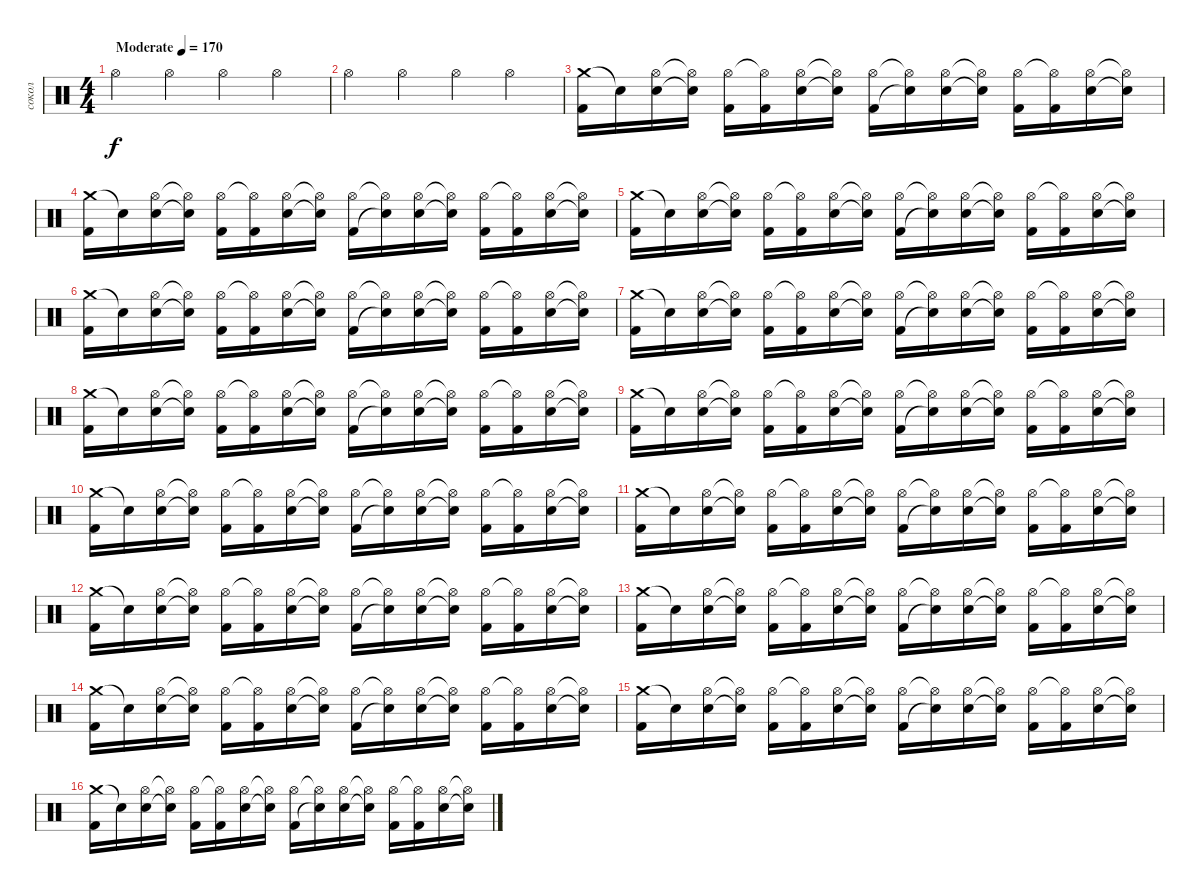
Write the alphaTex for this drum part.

\track ("сокол" "сокол") {instrument percussion}
\staff
\articulation defaults
\ts (4 4)
\tempo (170 "Moderate")
\clef neutral
\ks c "Hi-Hat (open)".4{dy f} "Hi-Hat (open)".4 "Hi-Hat (open)".4 "Hi-Hat (open)".4
|
"Hi-Hat (open)".4 "Hi-Hat (open)".4 "Hi-Hat (open)".4 "Hi-Hat (open)".4 |
("Crash medium (hit)" "Kick (hit) 2").16 "Snare (hit)"{t}.16 ("Hi-Hat (open)" "Electric Snare (hit)").16 ("Hi-Hat (open)"{t} "Snare (hit)"{t}).16 ("Hi-Hat (open)" "Kick (hit) 2").16 ("Hi-Hat (open)"{t} "Kick (hit) 2").16 ("Hi-Hat (open)" "Electric Snare (hit)").16 ("Hi-Hat (open)"{t} "Snare (hit)"{t}).16 ("Hi-Hat (open)" "Kick (hit) 2").16 ("Hi-Hat (open)"{t} "Snare (hit)"{t}).16 ("Hi-Hat (open)" "Electric Snare (hit)").16 ("Hi-Hat (open)"{t} "Snare (hit)"{t}).16 ("Hi-Hat (open)" "Kick (hit) 2").16 ("Hi-Hat (open)"{t} "Kick (hit) 2").16 ("Hi-Hat (open)" "Electric Snare (hit)").16 ("Hi-Hat (open)"{t} "Snare (hit)"{t}).16 |
("Crash medium (hit)" "Kick (hit) 2").16 "Snare (hit)"{t}.16 ("Hi-Hat (open)" "Electric Snare (hit)").16 ("Hi-Hat (open)"{t} "Snare (hit)"{t}).16 ("Hi-Hat (open)" "Kick (hit) 2").16 ("Hi-Hat (open)"{t} "Kick (hit) 2").16 ("Hi-Hat (open)" "Electric Snare (hit)").16 ("Hi-Hat (open)"{t} "Snare (hit)"{t}).16 ("Hi-Hat (open)" "Kick (hit) 2").16 ("Hi-Hat (open)"{t} "Snare (hit)"{t}).16 ("Hi-Hat (open)" "Electric Snare (hit)").16 ("Hi-Hat (open)"{t} "Snare (hit)"{t}).16 ("Hi-Hat (open)" "Kick (hit) 2").16 ("Hi-Hat (open)"{t} "Kick (hit) 2").16 ("Hi-Hat (open)" "Electric Snare (hit)").16 ("Hi-Hat (open)"{t} "Snare (hit)"{t}).16 |
("Crash medium (hit)" "Kick (hit) 2").16 "Snare (hit)"{t}.16 ("Hi-Hat (open)" "Electric Snare (hit)").16 ("Hi-Hat (open)"{t} "Snare (hit)"{t}).16 ("Hi-Hat (open)" "Kick (hit) 2").16 ("Hi-Hat (open)"{t} "Kick (hit) 2").16 ("Hi-Hat (open)" "Electric Snare (hit)").16 ("Hi-Hat (open)"{t} "Snare (hit)"{t}).16 ("Hi-Hat (open)" "Kick (hit) 2").16 ("Hi-Hat (open)"{t} "Snare (hit)"{t}).16 ("Hi-Hat (open)" "Electric Snare (hit)").16 ("Hi-Hat (open)"{t} "Snare (hit)"{t}).16 ("Hi-Hat (open)" "Kick (hit) 2").16 ("Hi-Hat (open)"{t} "Kick (hit) 2").16 ("Hi-Hat (open)" "Electric Snare (hit)").16 ("Hi-Hat (open)"{t} "Snare (hit)"{t}).16 |
("Crash medium (hit)" "Kick (hit) 2").16 "Snare (hit)"{t}.16 ("Hi-Hat (open)" "Electric Snare (hit)").16 ("Hi-Hat (open)"{t} "Snare (hit)"{t}).16 ("Hi-Hat (open)" "Kick (hit) 2").16 ("Hi-Hat (open)"{t} "Kick (hit) 2").16 ("Hi-Hat (open)" "Electric Snare (hit)").16 ("Hi-Hat (open)"{t} "Snare (hit)"{t}).16 ("Hi-Hat (open)" "Kick (hit) 2").16 ("Hi-Hat (open)"{t} "Snare (hit)"{t}).16 ("Hi-Hat (open)" "Electric Snare (hit)").16 ("Hi-Hat (open)"{t} "Snare (hit)"{t}).16 ("Hi-Hat (open)" "Kick (hit) 2").16 ("Hi-Hat (open)"{t} "Kick (hit) 2").16 ("Hi-Hat (open)" "Electric Snare (hit)").16 ("Hi-Hat (open)"{t} "Snare (hit)"{t}).16 |
("Crash medium (hit)" "Kick (hit) 2").16 "Snare (hit)"{t}.16 ("Hi-Hat (open)" "Electric Snare (hit)").16 ("Hi-Hat (open)"{t} "Snare (hit)"{t}).16 ("Hi-Hat (open)" "Kick (hit) 2").16 ("Hi-Hat (open)"{t} "Kick (hit) 2").16 ("Hi-Hat (open)" "Electric Snare (hit)").16 ("Hi-Hat (open)"{t} "Snare (hit)"{t}).16 ("Hi-Hat (open)" "Kick (hit) 2").16 ("Hi-Hat (open)"{t} "Snare (hit)"{t}).16 ("Hi-Hat (open)" "Electric Snare (hit)").16 ("Hi-Hat (open)"{t} "Snare (hit)"{t}).16 ("Hi-Hat (open)" "Kick (hit) 2").16 ("Hi-Hat (open)"{t} "Kick (hit) 2").16 ("Hi-Hat (open)" "Electric Snare (hit)").16 ("Hi-Hat (open)"{t} "Snare (hit)"{t}).16 |
("Crash medium (hit)" "Kick (hit) 2").16 "Snare (hit)"{t}.16 ("Hi-Hat (open)" "Electric Snare (hit)").16 ("Hi-Hat (open)"{t} "Snare (hit)"{t}).16 ("Hi-Hat (open)" "Kick (hit) 2").16 ("Hi-Hat (open)"{t} "Kick (hit) 2").16 ("Hi-Hat (open)" "Electric Snare (hit)").16 ("Hi-Hat (open)"{t} "Snare (hit)"{t}).16 ("Hi-Hat (open)" "Kick (hit) 2").16 ("Hi-Hat (open)"{t} "Snare (hit)"{t}).16 ("Hi-Hat (open)" "Electric Snare (hit)").16 ("Hi-Hat (open)"{t} "Snare (hit)"{t}).16 ("Hi-Hat (open)" "Kick (hit) 2").16 ("Hi-Hat (open)"{t} "Kick (hit) 2").16 ("Hi-Hat (open)" "Electric Snare (hit)").16 ("Hi-Hat (open)"{t} "Snare (hit)"{t}).16 |
("Crash medium (hit)" "Kick (hit) 2").16 "Snare (hit)"{t}.16 ("Hi-Hat (open)" "Electric Snare (hit)").16 ("Hi-Hat (open)"{t} "Snare (hit)"{t}).16 ("Hi-Hat (open)" "Kick (hit) 2").16 ("Hi-Hat (open)"{t} "Kick (hit) 2").16 ("Hi-Hat (open)" "Electric Snare (hit)").16 ("Hi-Hat (open)"{t} "Snare (hit)"{t}).16 ("Hi-Hat (open)" "Kick (hit) 2").16 ("Hi-Hat (open)"{t} "Snare (hit)"{t}).16 ("Hi-Hat (open)" "Electric Snare (hit)").16 ("Hi-Hat (open)"{t} "Snare (hit)"{t}).16 ("Hi-Hat (open)" "Kick (hit) 2").16 ("Hi-Hat (open)"{t} "Kick (hit) 2").16 ("Hi-Hat (open)" "Electric Snare (hit)").16 ("Hi-Hat (open)"{t} "Snare (hit)"{t}).16 |
("Crash medium (hit)" "Kick (hit) 2").16 "Snare (hit)"{t}.16 ("Hi-Hat (open)" "Electric Snare (hit)").16 ("Hi-Hat (open)"{t} "Snare (hit)"{t}).16 ("Hi-Hat (open)" "Kick (hit) 2").16 ("Hi-Hat (open)"{t} "Kick (hit) 2").16 ("Hi-Hat (open)" "Electric Snare (hit)").16 ("Hi-Hat (open)"{t} "Snare (hit)"{t}).16 ("Hi-Hat (open)" "Kick (hit) 2").16 ("Hi-Hat (open)"{t} "Snare (hit)"{t}).16 ("Hi-Hat (open)" "Electric Snare (hit)").16 ("Hi-Hat (open)"{t} "Snare (hit)"{t}).16 ("Hi-Hat (open)" "Kick (hit) 2").16 ("Hi-Hat (open)"{t} "Kick (hit) 2").16 ("Hi-Hat (open)" "Electric Snare (hit)").16 ("Hi-Hat (open)"{t} "Snare (hit)"{t}).16 |
("Crash medium (hit)" "Kick (hit) 2").16 "Snare (hit)"{t}.16 ("Hi-Hat (open)" "Electric Snare (hit)").16 ("Hi-Hat (open)"{t} "Snare (hit)"{t}).16 ("Hi-Hat (open)" "Kick (hit) 2").16 ("Hi-Hat (open)"{t} "Kick (hit) 2").16 ("Hi-Hat (open)" "Electric Snare (hit)").16 ("Hi-Hat (open)"{t} "Snare (hit)"{t}).16 ("Hi-Hat (open)" "Kick (hit) 2").16 ("Hi-Hat (open)"{t} "Snare (hit)"{t}).16 ("Hi-Hat (open)" "Electric Snare (hit)").16 ("Hi-Hat (open)"{t} "Snare (hit)"{t}).16 ("Hi-Hat (open)" "Kick (hit) 2").16 ("Hi-Hat (open)"{t} "Kick (hit) 2").16 ("Hi-Hat (open)" "Electric Snare (hit)").16 ("Hi-Hat (open)"{t} "Snare (hit)"{t}).16 |
("Crash medium (hit)" "Kick (hit) 2").16 "Snare (hit)"{t}.16 ("Hi-Hat (open)" "Electric Snare (hit)").16 ("Hi-Hat (open)"{t} "Snare (hit)"{t}).16 ("Hi-Hat (open)" "Kick (hit) 2").16 ("Hi-Hat (open)"{t} "Kick (hit) 2").16 ("Hi-Hat (open)" "Electric Snare (hit)").16 ("Hi-Hat (open)"{t} "Snare (hit)"{t}).16 ("Hi-Hat (open)" "Kick (hit) 2").16 ("Hi-Hat (open)"{t} "Snare (hit)"{t}).16 ("Hi-Hat (open)" "Electric Snare (hit)").16 ("Hi-Hat (open)"{t} "Snare (hit)"{t}).16 ("Hi-Hat (open)" "Kick (hit) 2").16 ("Hi-Hat (open)"{t} "Kick (hit) 2").16 ("Hi-Hat (open)" "Electric Snare (hit)").16 ("Hi-Hat (open)"{t} "Snare (hit)"{t}).16 |
("Crash medium (hit)" "Kick (hit) 2").16 "Snare (hit)"{t}.16 ("Hi-Hat (open)" "Electric Snare (hit)").16 ("Hi-Hat (open)"{t} "Snare (hit)"{t}).16 ("Hi-Hat (open)" "Kick (hit) 2").16 ("Hi-Hat (open)"{t} "Kick (hit) 2").16 ("Hi-Hat (open)" "Electric Snare (hit)").16 ("Hi-Hat (open)"{t} "Snare (hit)"{t}).16 ("Hi-Hat (open)" "Kick (hit) 2").16 ("Hi-Hat (open)"{t} "Snare (hit)"{t}).16 ("Hi-Hat (open)" "Electric Snare (hit)").16 ("Hi-Hat (open)"{t} "Snare (hit)"{t}).16 ("Hi-Hat (open)" "Kick (hit) 2").16 ("Hi-Hat (open)"{t} "Kick (hit) 2").16 ("Hi-Hat (open)" "Electric Snare (hit)").16 ("Hi-Hat (open)"{t} "Snare (hit)"{t}).16 |
("Crash medium (hit)" "Kick (hit) 2").16 "Snare (hit)"{t}.16 ("Hi-Hat (open)" "Electric Snare (hit)").16 ("Hi-Hat (open)"{t} "Snare (hit)"{t}).16 ("Hi-Hat (open)" "Kick (hit) 2").16 ("Hi-Hat (open)"{t} "Kick (hit) 2").16 ("Hi-Hat (open)" "Electric Snare (hit)").16 ("Hi-Hat (open)"{t} "Snare (hit)"{t}).16 ("Hi-Hat (open)" "Kick (hit) 2").16 ("Hi-Hat (open)"{t} "Snare (hit)"{t}).16 ("Hi-Hat (open)" "Electric Snare (hit)").16 ("Hi-Hat (open)"{t} "Snare (hit)"{t}).16 ("Hi-Hat (open)" "Kick (hit) 2").16 ("Hi-Hat (open)"{t} "Kick (hit) 2").16 ("Hi-Hat (open)" "Electric Snare (hit)").16 ("Hi-Hat (open)"{t} "Snare (hit)"{t}).16 |
("Crash medium (hit)" "Kick (hit) 2").16 "Snare (hit)"{t}.16 ("Hi-Hat (open)" "Electric Snare (hit)").16 ("Hi-Hat (open)"{t} "Snare (hit)"{t}).16 ("Hi-Hat (open)" "Kick (hit) 2").16 ("Hi-Hat (open)"{t} "Kick (hit) 2").16 ("Hi-Hat (open)" "Electric Snare (hit)").16 ("Hi-Hat (open)"{t} "Snare (hit)"{t}).16 ("Hi-Hat (open)" "Kick (hit) 2").16 ("Hi-Hat (open)"{t} "Snare (hit)"{t}).16 ("Hi-Hat (open)" "Electric Snare (hit)").16 ("Hi-Hat (open)"{t} "Snare (hit)"{t}).16 ("Hi-Hat (open)" "Kick (hit) 2").16 ("Hi-Hat (open)"{t} "Kick (hit) 2").16 ("Hi-Hat (open)" "Electric Snare (hit)").16 ("Hi-Hat (open)"{t} "Snare (hit)"{t}).16 |
("Crash medium (hit)" "Kick (hit) 2").16 "Snare (hit)"{t}.16 ("Hi-Hat (open)" "Electric Snare (hit)").16 ("Hi-Hat (open)"{t} "Snare (hit)"{t}).16 ("Hi-Hat (open)" "Kick (hit) 2").16 ("Hi-Hat (open)"{t} "Kick (hit) 2").16 ("Hi-Hat (open)" "Electric Snare (hit)").16 ("Hi-Hat (open)"{t} "Snare (hit)"{t}).16 ("Hi-Hat (open)" "Kick (hit) 2").16 ("Hi-Hat (open)"{t} "Snare (hit)"{t}).16 ("Hi-Hat (open)" "Electric Snare (hit)").16 ("Hi-Hat (open)"{t} "Snare (hit)"{t}).16 ("Hi-Hat (open)" "Kick (hit) 2").16 ("Hi-Hat (open)"{t} "Kick (hit) 2").16 ("Hi-Hat (open)" "Electric Snare (hit)").16 ("Hi-Hat (open)"{t} "Snare (hit)"{t}).16
